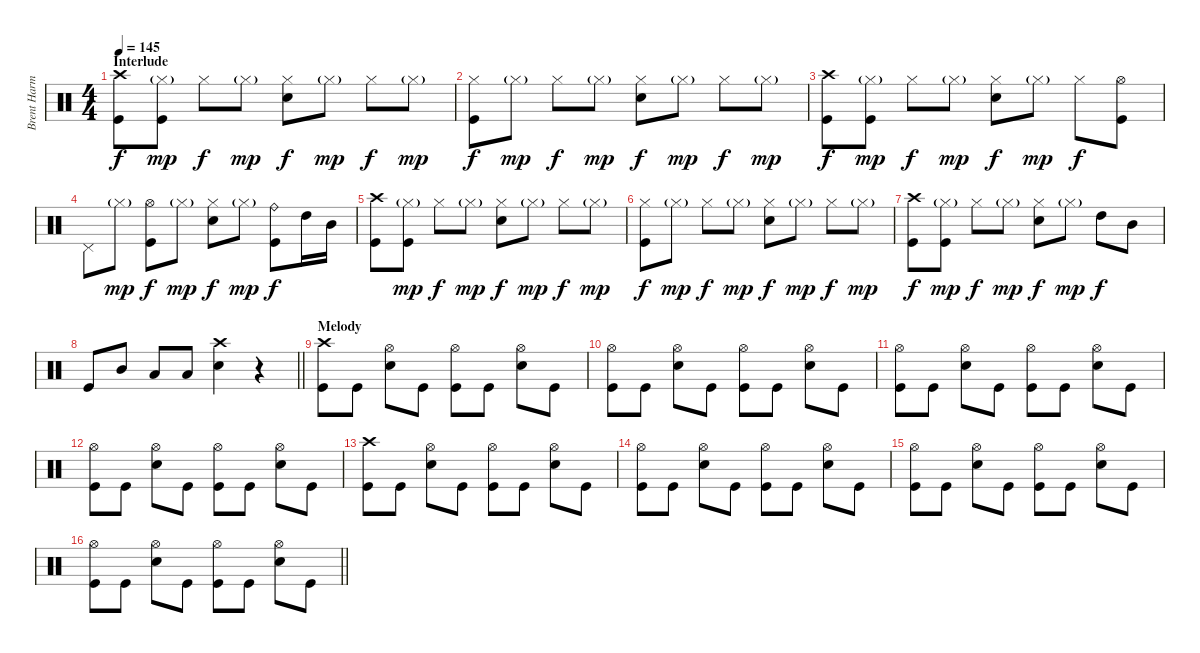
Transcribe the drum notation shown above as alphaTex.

\track ("Brent Harman" "Brent Harm") {instrument percussion}
\staff {score}
\articulation defaults
\ts (4 4)
\section ("" "Interlude")
\tempo 145
\clef neutral
\ks c
("Crash high (hit)" "Kick (hit)").8{dy f} ("Hi-Hat (closed)"{g} "Kick (hit)").8{dy mp} "Hi-Hat (closed)".8{dy f} "Hi-Hat (closed)"{g}.8{dy mp} ("Hi-Hat (closed)" "Snare (hit) 2").8{dy f} "Hi-Hat (closed)"{g}.8{dy mp} "Hi-Hat (closed)".8{dy f} "Hi-Hat (closed)"{g}.8{dy mp} |
("Hi-Hat (closed)" "Kick (hit)").8{dy f} "Hi-Hat (closed)"{g}.8{dy mp} "Hi-Hat (closed)".8{dy f} "Hi-Hat (closed)"{g}.8{dy mp} ("Hi-Hat (closed)" "Snare (hit) 2").8{dy f} "Hi-Hat (closed)"{g}.8{dy mp} "Hi-Hat (closed)".8{dy f} "Hi-Hat (closed)"{g}.8{dy mp} |
("Crash high (hit)" "Kick (hit)").8{dy f} ("Hi-Hat (closed)"{g} "Kick (hit)").8{dy mp} "Hi-Hat (closed)".8{dy f} "Hi-Hat (closed)"{g}.8{dy mp} ("Hi-Hat (closed)" "Snare (hit) 2").8{dy f} "Hi-Hat (closed)"{g}.8{dy mp} "Hi-Hat (closed)".8{dy f} ("Hi-Hat (open)" "Kick (hit)").8 |
"Pedal Hi-Hat (hit)".8 "Hi-Hat (closed)"{g}.8{dy mp} ("Hi-Hat (open)" "Kick (hit)").8{dy f} "Hi-Hat (closed)"{g}.8{dy mp} ("Hi-Hat (closed)" "Snare (hit) 2").8{dy f} "Hi-Hat (closed)"{g}.8{dy mp} ("Ride (bell)" "Kick (hit)").8{dy f} "High Tom (hit)".16 "Mid Tom (hit)".16 |
("Crash high (hit)" "Kick (hit)").8 ("Hi-Hat (closed)"{g} "Kick (hit)").8{dy mp} "Hi-Hat (closed)".8{dy f} "Hi-Hat (closed)"{g}.8{dy mp} ("Hi-Hat (closed)" "Snare (hit) 2").8{dy f} "Hi-Hat (closed)"{g}.8{dy mp} "Hi-Hat (closed)".8{dy f} "Hi-Hat (closed)"{g}.8{dy mp} |
("Hi-Hat (closed)" "Kick (hit)").8{dy f} "Hi-Hat (closed)"{g}.8{dy mp} "Hi-Hat (closed)".8{dy f} "Hi-Hat (closed)"{g}.8{dy mp} ("Hi-Hat (closed)" "Snare (hit) 2").8{dy f} "Hi-Hat (closed)"{g}.8{dy mp} "Hi-Hat (closed)".8{dy f} "Hi-Hat (closed)"{g}.8{dy mp} |
("Crash high (hit)" "Kick (hit)").8{dy f} ("Hi-Hat (closed)"{g} "Kick (hit)").8{dy mp} "Hi-Hat (closed)".8{dy f} "Hi-Hat (closed)"{g}.8{dy mp} ("Hi-Hat (closed)" "Snare (hit) 2").8{dy f} "Hi-Hat (closed)"{g}.8{dy mp} "High Tom (hit)".8{dy f} "Mid Tom (hit)".8 |
\barLineRight lightlight "Kick (hit)".8 "Mid Tom (hit)".8 "Low Tom (hit)".8 "Low Floor Tom (hit)".8
("Crash high (hit)" "Snare (hit) 2").4 r.4{volume 0} |
\section ("" "Melody")
("Crash high (hit)" "Kick (hit)").8{volume 13} "Kick (hit)".8 ("Hi-Hat (open)" "Snare (hit) 2").8 "Kick (hit)".8 ("Hi-Hat (open)" "Kick (hit)").8 "Kick (hit)".8 ("Hi-Hat (open)" "Snare (hit) 2").8 "Kick (hit)".8 |
("Hi-Hat (open)" "Kick (hit)").8 "Kick (hit)".8 ("Hi-Hat (open)" "Snare (hit) 2").8 "Kick (hit)".8 ("Hi-Hat (open)" "Kick (hit)").8 "Kick (hit)".8 ("Hi-Hat (open)" "Snare (hit) 2").8 "Kick (hit)".8 |
("Hi-Hat (open)" "Kick (hit)").8 "Kick (hit)".8 ("Hi-Hat (open)" "Snare (hit) 2").8 "Kick (hit)".8 ("Hi-Hat (open)" "Kick (hit)").8 "Kick (hit)".8 ("Hi-Hat (open)" "Snare (hit) 2").8 "Kick (hit)".8 |
("Hi-Hat (open)" "Kick (hit)").8 "Kick (hit)".8 ("Hi-Hat (open)" "Snare (hit) 2").8 "Kick (hit)".8 ("Hi-Hat (open)" "Kick (hit)").8 "Kick (hit)".8 ("Hi-Hat (open)" "Snare (hit) 2").8 "Kick (hit)".8 |
("Crash high (hit)" "Kick (hit)").8 "Kick (hit)".8 ("Hi-Hat (open)" "Snare (hit) 2").8 "Kick (hit)".8 ("Hi-Hat (open)" "Kick (hit)").8 "Kick (hit)".8 ("Hi-Hat (open)" "Snare (hit) 2").8 "Kick (hit)".8 |
("Hi-Hat (open)" "Kick (hit)").8 "Kick (hit)".8 ("Hi-Hat (open)" "Snare (hit) 2").8 "Kick (hit)".8 ("Hi-Hat (open)" "Kick (hit)").8 "Kick (hit)".8 ("Hi-Hat (open)" "Snare (hit) 2").8 "Kick (hit)".8 |
("Hi-Hat (open)" "Kick (hit)").8 "Kick (hit)".8 ("Hi-Hat (open)" "Snare (hit) 2").8 "Kick (hit)".8 ("Hi-Hat (open)" "Kick (hit)").8 "Kick (hit)".8 ("Hi-Hat (open)" "Snare (hit) 2").8 "Kick (hit)".8 |
\barLineRight lightlight
("Hi-Hat (open)" "Kick (hit)").8 "Kick (hit)".8 ("Hi-Hat (open)" "Snare (hit) 2").8 "Kick (hit)".8 ("Hi-Hat (open)" "Kick (hit)").8 "Kick (hit)".8 ("Hi-Hat (open)" "Snare (hit) 2").8 "Kick (hit)".8
